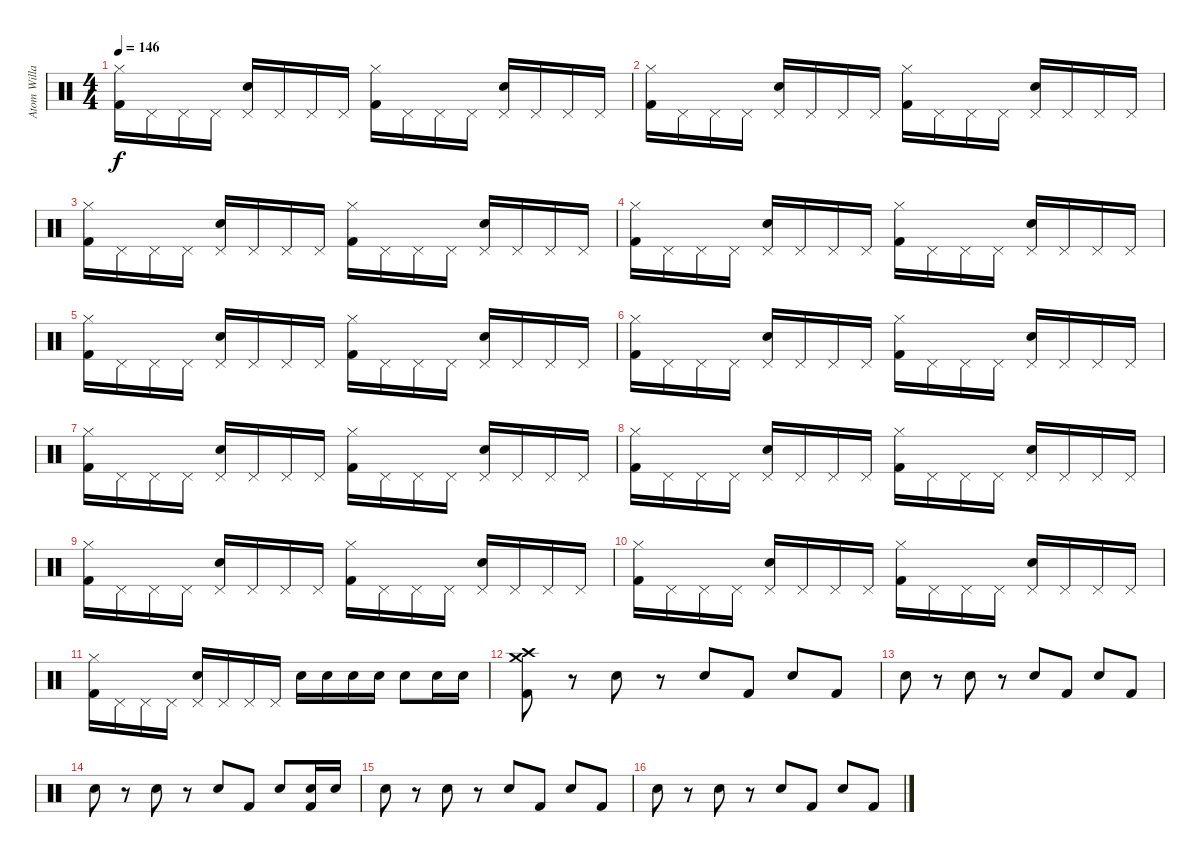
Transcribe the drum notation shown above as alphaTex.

\track ("Atom Willard" "Atom Willa") {instrument percussion}
\staff {score}
\articulation defaults
\ts (4 4)
\tempo 146
\clef neutral
\ks c
("Hi-Hat (closed)" "Kick (hit) 2").16{dy f} "Pedal Hi-Hat (hit)".16 "Pedal Hi-Hat (hit)".16 "Pedal Hi-Hat (hit)".16 ("Pedal Hi-Hat (hit)" "Electric Snare (hit)").16 "Pedal Hi-Hat (hit)".16 "Pedal Hi-Hat (hit)".16 "Pedal Hi-Hat (hit)".16 ("Hi-Hat (closed)" "Kick (hit) 2").16 "Pedal Hi-Hat (hit)".16 "Pedal Hi-Hat (hit)".16 "Pedal Hi-Hat (hit)".16 ("Pedal Hi-Hat (hit)" "Electric Snare (hit)").16 "Pedal Hi-Hat (hit)".16 "Pedal Hi-Hat (hit)".16 "Pedal Hi-Hat (hit)".16 |
("Hi-Hat (closed)" "Kick (hit) 2").16 "Pedal Hi-Hat (hit)".16 "Pedal Hi-Hat (hit)".16 "Pedal Hi-Hat (hit)".16 ("Pedal Hi-Hat (hit)" "Electric Snare (hit)").16 "Pedal Hi-Hat (hit)".16 "Pedal Hi-Hat (hit)".16 "Pedal Hi-Hat (hit)".16 ("Hi-Hat (closed)" "Kick (hit) 2").16 "Pedal Hi-Hat (hit)".16 "Pedal Hi-Hat (hit)".16 "Pedal Hi-Hat (hit)".16 ("Pedal Hi-Hat (hit)" "Electric Snare (hit)").16 "Pedal Hi-Hat (hit)".16 "Pedal Hi-Hat (hit)".16 "Pedal Hi-Hat (hit)".16 |
("Hi-Hat (closed)" "Kick (hit) 2").16 "Pedal Hi-Hat (hit)".16 "Pedal Hi-Hat (hit)".16 "Pedal Hi-Hat (hit)".16 ("Pedal Hi-Hat (hit)" "Electric Snare (hit)").16 "Pedal Hi-Hat (hit)".16 "Pedal Hi-Hat (hit)".16 "Pedal Hi-Hat (hit)".16 ("Hi-Hat (closed)" "Kick (hit) 2").16 "Pedal Hi-Hat (hit)".16 "Pedal Hi-Hat (hit)".16 "Pedal Hi-Hat (hit)".16 ("Pedal Hi-Hat (hit)" "Electric Snare (hit)").16 "Pedal Hi-Hat (hit)".16 "Pedal Hi-Hat (hit)".16 "Pedal Hi-Hat (hit)".16 |
("Hi-Hat (closed)" "Kick (hit) 2").16 "Pedal Hi-Hat (hit)".16 "Pedal Hi-Hat (hit)".16 "Pedal Hi-Hat (hit)".16 ("Pedal Hi-Hat (hit)" "Electric Snare (hit)").16 "Pedal Hi-Hat (hit)".16 "Pedal Hi-Hat (hit)".16 "Pedal Hi-Hat (hit)".16 ("Hi-Hat (closed)" "Kick (hit) 2").16 "Pedal Hi-Hat (hit)".16 "Pedal Hi-Hat (hit)".16 "Pedal Hi-Hat (hit)".16 ("Pedal Hi-Hat (hit)" "Electric Snare (hit)").16 "Pedal Hi-Hat (hit)".16 "Pedal Hi-Hat (hit)".16 "Pedal Hi-Hat (hit)".16 |
("Hi-Hat (closed)" "Kick (hit) 2").16 "Pedal Hi-Hat (hit)".16 "Pedal Hi-Hat (hit)".16 "Pedal Hi-Hat (hit)".16 ("Pedal Hi-Hat (hit)" "Electric Snare (hit)").16 "Pedal Hi-Hat (hit)".16 "Pedal Hi-Hat (hit)".16 "Pedal Hi-Hat (hit)".16 ("Hi-Hat (closed)" "Kick (hit) 2").16 "Pedal Hi-Hat (hit)".16 "Pedal Hi-Hat (hit)".16 "Pedal Hi-Hat (hit)".16 ("Pedal Hi-Hat (hit)" "Electric Snare (hit)").16 "Pedal Hi-Hat (hit)".16 "Pedal Hi-Hat (hit)".16 "Pedal Hi-Hat (hit)".16 |
("Hi-Hat (closed)" "Kick (hit) 2").16 "Pedal Hi-Hat (hit)".16 "Pedal Hi-Hat (hit)".16 "Pedal Hi-Hat (hit)".16 ("Pedal Hi-Hat (hit)" "Electric Snare (hit)").16 "Pedal Hi-Hat (hit)".16 "Pedal Hi-Hat (hit)".16 "Pedal Hi-Hat (hit)".16 ("Hi-Hat (closed)" "Kick (hit) 2").16 "Pedal Hi-Hat (hit)".16 "Pedal Hi-Hat (hit)".16 "Pedal Hi-Hat (hit)".16 ("Pedal Hi-Hat (hit)" "Electric Snare (hit)").16 "Pedal Hi-Hat (hit)".16 "Pedal Hi-Hat (hit)".16 "Pedal Hi-Hat (hit)".16 |
("Hi-Hat (closed)" "Kick (hit) 2").16 "Pedal Hi-Hat (hit)".16 "Pedal Hi-Hat (hit)".16 "Pedal Hi-Hat (hit)".16 ("Pedal Hi-Hat (hit)" "Electric Snare (hit)").16 "Pedal Hi-Hat (hit)".16 "Pedal Hi-Hat (hit)".16 "Pedal Hi-Hat (hit)".16 ("Hi-Hat (closed)" "Kick (hit) 2").16 "Pedal Hi-Hat (hit)".16 "Pedal Hi-Hat (hit)".16 "Pedal Hi-Hat (hit)".16 ("Pedal Hi-Hat (hit)" "Electric Snare (hit)").16 "Pedal Hi-Hat (hit)".16 "Pedal Hi-Hat (hit)".16 "Pedal Hi-Hat (hit)".16 |
("Hi-Hat (closed)" "Kick (hit) 2").16 "Pedal Hi-Hat (hit)".16 "Pedal Hi-Hat (hit)".16 "Pedal Hi-Hat (hit)".16 ("Pedal Hi-Hat (hit)" "Electric Snare (hit)").16 "Pedal Hi-Hat (hit)".16 "Pedal Hi-Hat (hit)".16 "Pedal Hi-Hat (hit)".16 ("Hi-Hat (closed)" "Kick (hit) 2").16 "Pedal Hi-Hat (hit)".16 "Pedal Hi-Hat (hit)".16 "Pedal Hi-Hat (hit)".16 ("Pedal Hi-Hat (hit)" "Electric Snare (hit)").16 "Pedal Hi-Hat (hit)".16 "Pedal Hi-Hat (hit)".16 "Pedal Hi-Hat (hit)".16 |
("Hi-Hat (closed)" "Kick (hit) 2").16 "Pedal Hi-Hat (hit)".16 "Pedal Hi-Hat (hit)".16 "Pedal Hi-Hat (hit)".16 ("Pedal Hi-Hat (hit)" "Electric Snare (hit)").16 "Pedal Hi-Hat (hit)".16 "Pedal Hi-Hat (hit)".16 "Pedal Hi-Hat (hit)".16 ("Hi-Hat (closed)" "Kick (hit) 2").16 "Pedal Hi-Hat (hit)".16 "Pedal Hi-Hat (hit)".16 "Pedal Hi-Hat (hit)".16 ("Pedal Hi-Hat (hit)" "Electric Snare (hit)").16 "Pedal Hi-Hat (hit)".16 "Pedal Hi-Hat (hit)".16 "Pedal Hi-Hat (hit)".16 |
("Hi-Hat (closed)" "Kick (hit) 2").16 "Pedal Hi-Hat (hit)".16 "Pedal Hi-Hat (hit)".16 "Pedal Hi-Hat (hit)".16 ("Pedal Hi-Hat (hit)" "Electric Snare (hit)").16 "Pedal Hi-Hat (hit)".16 "Pedal Hi-Hat (hit)".16 "Pedal Hi-Hat (hit)".16 ("Hi-Hat (closed)" "Kick (hit) 2").16 "Pedal Hi-Hat (hit)".16 "Pedal Hi-Hat (hit)".16 "Pedal Hi-Hat (hit)".16 ("Pedal Hi-Hat (hit)" "Electric Snare (hit)").16 "Pedal Hi-Hat (hit)".16 "Pedal Hi-Hat (hit)".16 "Pedal Hi-Hat (hit)".16 |
("Hi-Hat (closed)" "Kick (hit) 2").16 "Pedal Hi-Hat (hit)".16 "Pedal Hi-Hat (hit)".16 "Pedal Hi-Hat (hit)".16 ("Pedal Hi-Hat (hit)" "Electric Snare (hit)").16 "Pedal Hi-Hat (hit)".16 "Pedal Hi-Hat (hit)".16 "Pedal Hi-Hat (hit)".16 "Electric Snare (hit)".16 "Electric Snare (hit)".16 "Electric Snare (hit)".16 "Electric Snare (hit)".16 "Electric Snare (hit)".8 "Electric Snare (hit)".16 "Electric Snare (hit)".16 |
("Crash high (hit)" "Crash medium (hit)" "Kick (hit) 2").8 r.8 "Electric Snare (hit)".8 r.8 "Electric Snare (hit)".8 "Kick (hit) 2".8 "Electric Snare (hit)".8 "Kick (hit) 2".8 |
"Electric Snare (hit)".8 r.8 "Electric Snare (hit)".8 r.8 "Electric Snare (hit)".8 "Kick (hit) 2".8 "Electric Snare (hit)".8 "Kick (hit) 2".8 |
"Electric Snare (hit)".8 r.8 "Electric Snare (hit)".8 r.8 "Electric Snare (hit)".8 "Kick (hit) 2".8 "Electric Snare (hit)".8 ("Electric Snare (hit)" "Kick (hit) 2").16 "Electric Snare (hit)".16 |
"Electric Snare (hit)".8 r.8 "Electric Snare (hit)".8 r.8 "Electric Snare (hit)".8 "Kick (hit) 2".8 "Electric Snare (hit)".8 "Kick (hit) 2".8 |
"Electric Snare (hit)".8 r.8 "Electric Snare (hit)".8 r.8 "Electric Snare (hit)".8 "Kick (hit) 2".8 "Electric Snare (hit)".8 "Kick (hit) 2".8
